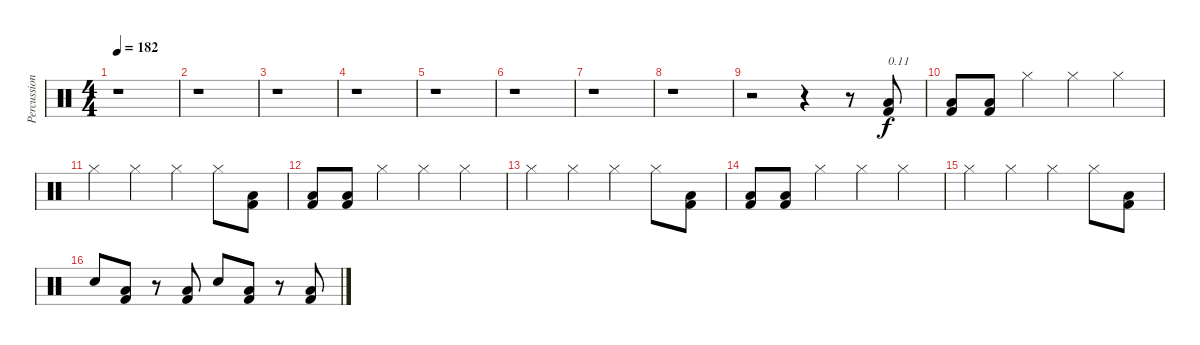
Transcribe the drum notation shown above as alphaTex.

\track ("Percussions" "Percussion") {instrument percussion}
\staff {score}
\articulation defaults
\ts (4 4)
\tempo 182
\clef neutral
\ks c
r.1{dy f} |
r.1 |
r.1 |
r.1 |
r.1 |
r.1 |
r.1 |
r.1 |
r.2 r.4 r.8 ("Kick (hit) 2" "Low Floor Tom (hit)").8{txt "0.11"} |
("Kick (hit) 2" "Low Floor Tom (hit)").8 ("Kick (hit) 2" "Low Floor Tom (hit)").8 "Hi-Hat (closed)".4 "Hi-Hat (closed)".4 "Hi-Hat (closed)".4 |
"Hi-Hat (closed)".4 "Hi-Hat (closed)".4 "Hi-Hat (closed)".4 "Hi-Hat (closed)".8 ("Kick (hit) 2" "Low Floor Tom (hit)").8 |
("Kick (hit) 2" "Low Floor Tom (hit)").8 ("Kick (hit) 2" "Low Floor Tom (hit)").8 "Hi-Hat (closed)".4 "Hi-Hat (closed)".4 "Hi-Hat (closed)".4 |
"Hi-Hat (closed)".4 "Hi-Hat (closed)".4 "Hi-Hat (closed)".4 "Hi-Hat (closed)".8 ("Kick (hit) 2" "Low Floor Tom (hit)").8 |
("Kick (hit) 2" "Low Floor Tom (hit)").8 ("Kick (hit) 2" "Low Floor Tom (hit)").8 "Hi-Hat (closed)".4 "Hi-Hat (closed)".4 "Hi-Hat (closed)".4 |
"Hi-Hat (closed)".4 "Hi-Hat (closed)".4 "Hi-Hat (closed)".4 "Hi-Hat (closed)".8 ("Kick (hit) 2" "Low Floor Tom (hit)").8 |
"Electric Snare (hit)".8 ("Kick (hit) 2" "Low Floor Tom (hit)").8 r.8 ("Kick (hit) 2" "Low Floor Tom (hit)").8 "Electric Snare (hit)".8 ("Kick (hit) 2" "Low Floor Tom (hit)").8 r.8 ("Kick (hit) 2" "Low Floor Tom (hit)").8
